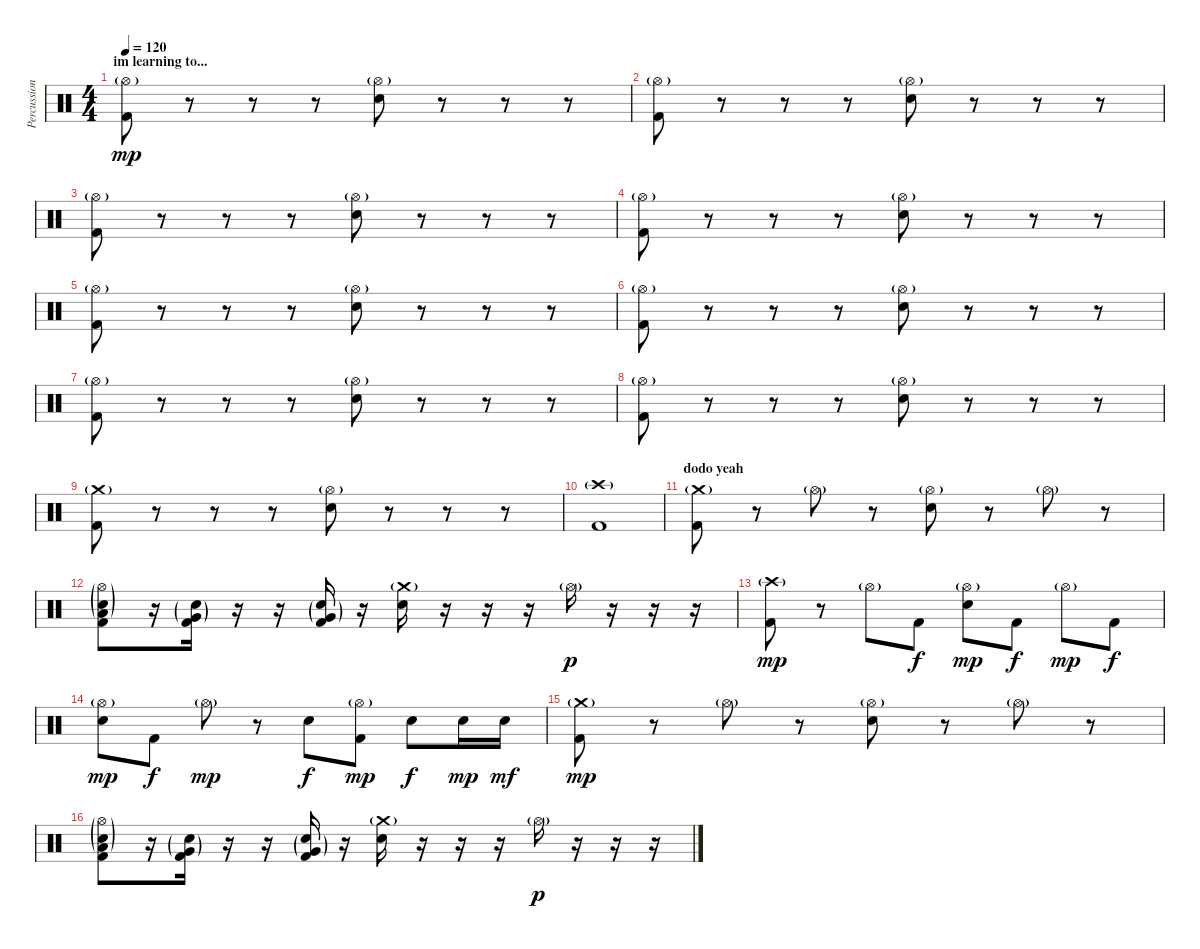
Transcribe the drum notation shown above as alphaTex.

\track ("Percussion" "Percussion") {instrument percussion}
\staff {score}
\articulation defaults
\ts (4 4)
\section ("" "im learning to...")
\tempo 120
\clef neutral
\ks c
("Hi-Hat (open)"{g} "Kick (hit) 2").8{dy mp} r.8 r.8 r.8 ("Hi-Hat (open)"{g} "Electric Snare (hit)").8 r.8 r.8 r.8 |
("Hi-Hat (open)"{g} "Kick (hit) 2").8 r.8 r.8 r.8 ("Hi-Hat (open)"{g} "Electric Snare (hit)").8 r.8 r.8 r.8 |
("Hi-Hat (open)"{g} "Kick (hit) 2").8 r.8 r.8 r.8 ("Hi-Hat (open)"{g} "Electric Snare (hit)").8 r.8 r.8 r.8 |
("Hi-Hat (open)"{g} "Kick (hit) 2").8 r.8 r.8 r.8 ("Hi-Hat (open)"{g} "Electric Snare (hit)").8 r.8 r.8 r.8 |
("Hi-Hat (open)"{g} "Kick (hit) 2").8 r.8 r.8 r.8 ("Hi-Hat (open)"{g} "Electric Snare (hit)").8 r.8 r.8 r.8 |
("Hi-Hat (open)"{g} "Kick (hit) 2").8 r.8 r.8 r.8 ("Hi-Hat (open)"{g} "Electric Snare (hit)").8 r.8 r.8 r.8 |
("Hi-Hat (open)"{g} "Kick (hit) 2").8 r.8 r.8 r.8 ("Hi-Hat (open)"{g} "Electric Snare (hit)").8 r.8 r.8 r.8 |
("Hi-Hat (open)"{g} "Kick (hit) 2").8 r.8 r.8 r.8 ("Hi-Hat (open)"{g} "Electric Snare (hit)").8 r.8 r.8 r.8 |
("Crash medium (hit)"{g} "Kick (hit) 2").8 r.8 r.8 r.8 ("Hi-Hat (open)"{g} "Electric Snare (hit)").8 r.8 r.8 r.8 |
("Crash high (hit)"{g} "Kick (hit) 2").1 |
\section ("" "dodo yeah")
("Crash medium (hit)"{g} "Kick (hit) 2").8 r.8 "Hi-Hat (open)"{g}.8 r.8 ("Hi-Hat (open)"{g} "Electric Snare (hit)").8 r.8 "Hi-Hat (open)"{g}.8 r.8 |
("Hi-Hat (open)"{g} "Low Tom (hit)"{g} "Electric Snare (hit)"{g} "Kick (hit) 2").8 r.16 ("Very Low Tom (hit)"{g} "Electric Snare (hit)"{g} "Kick (hit) 2").16 r.16 r.16 ("Very Low Tom (hit)"{g} "Electric Snare (hit)"{g} "Kick (hit) 2").16 r.16 ("Crash medium (hit)"{g} "Electric Snare (hit)").16 r.16 r.16 r.16 "Hi-Hat (open)"{g}.16{dy p} r.16 r.16 r.16 |
("Crash high (hit)"{g} "Kick (hit) 2").8{dy mp} r.8 "Hi-Hat (open)"{g}.8 "Kick (hit) 2".8{dy f} ("Hi-Hat (open)"{g} "Electric Snare (hit)").8{dy mp} "Kick (hit) 2".8{dy f} "Hi-Hat (open)"{g}.8{dy mp} "Kick (hit) 2".8{dy f} |
("Hi-Hat (open)"{g} "Electric Snare (hit)").8{dy mp} "Kick (hit) 2".8{dy f} "Hi-Hat (open)"{g}.8{dy mp} r.8 "Electric Snare (hit)".8{dy f} ("Hi-Hat (open)"{g} "Kick (hit) 2").8{dy mp} "Electric Snare (hit)".8{dy f} "Electric Snare (hit)".16{dy mp} "Electric Snare (hit)".16{dy mf} |
("Crash medium (hit)"{g} "Kick (hit) 2").8{dy mp} r.8 "Hi-Hat (open)"{g}.8 r.8 ("Hi-Hat (open)"{g} "Electric Snare (hit)").8 r.8 "Hi-Hat (open)"{g}.8 r.8 |
("Hi-Hat (open)"{g} "Low Tom (hit)"{g} "Electric Snare (hit)"{g} "Kick (hit) 2").8 r.16 ("Very Low Tom (hit)"{g} "Electric Snare (hit)"{g} "Kick (hit) 2").16 r.16 r.16 ("Very Low Tom (hit)"{g} "Electric Snare (hit)"{g} "Kick (hit) 2").16 r.16 ("Crash medium (hit)"{g} "Electric Snare (hit)").16 r.16 r.16 r.16 "Hi-Hat (open)"{g}.16{dy p} r.16 r.16 r.16
